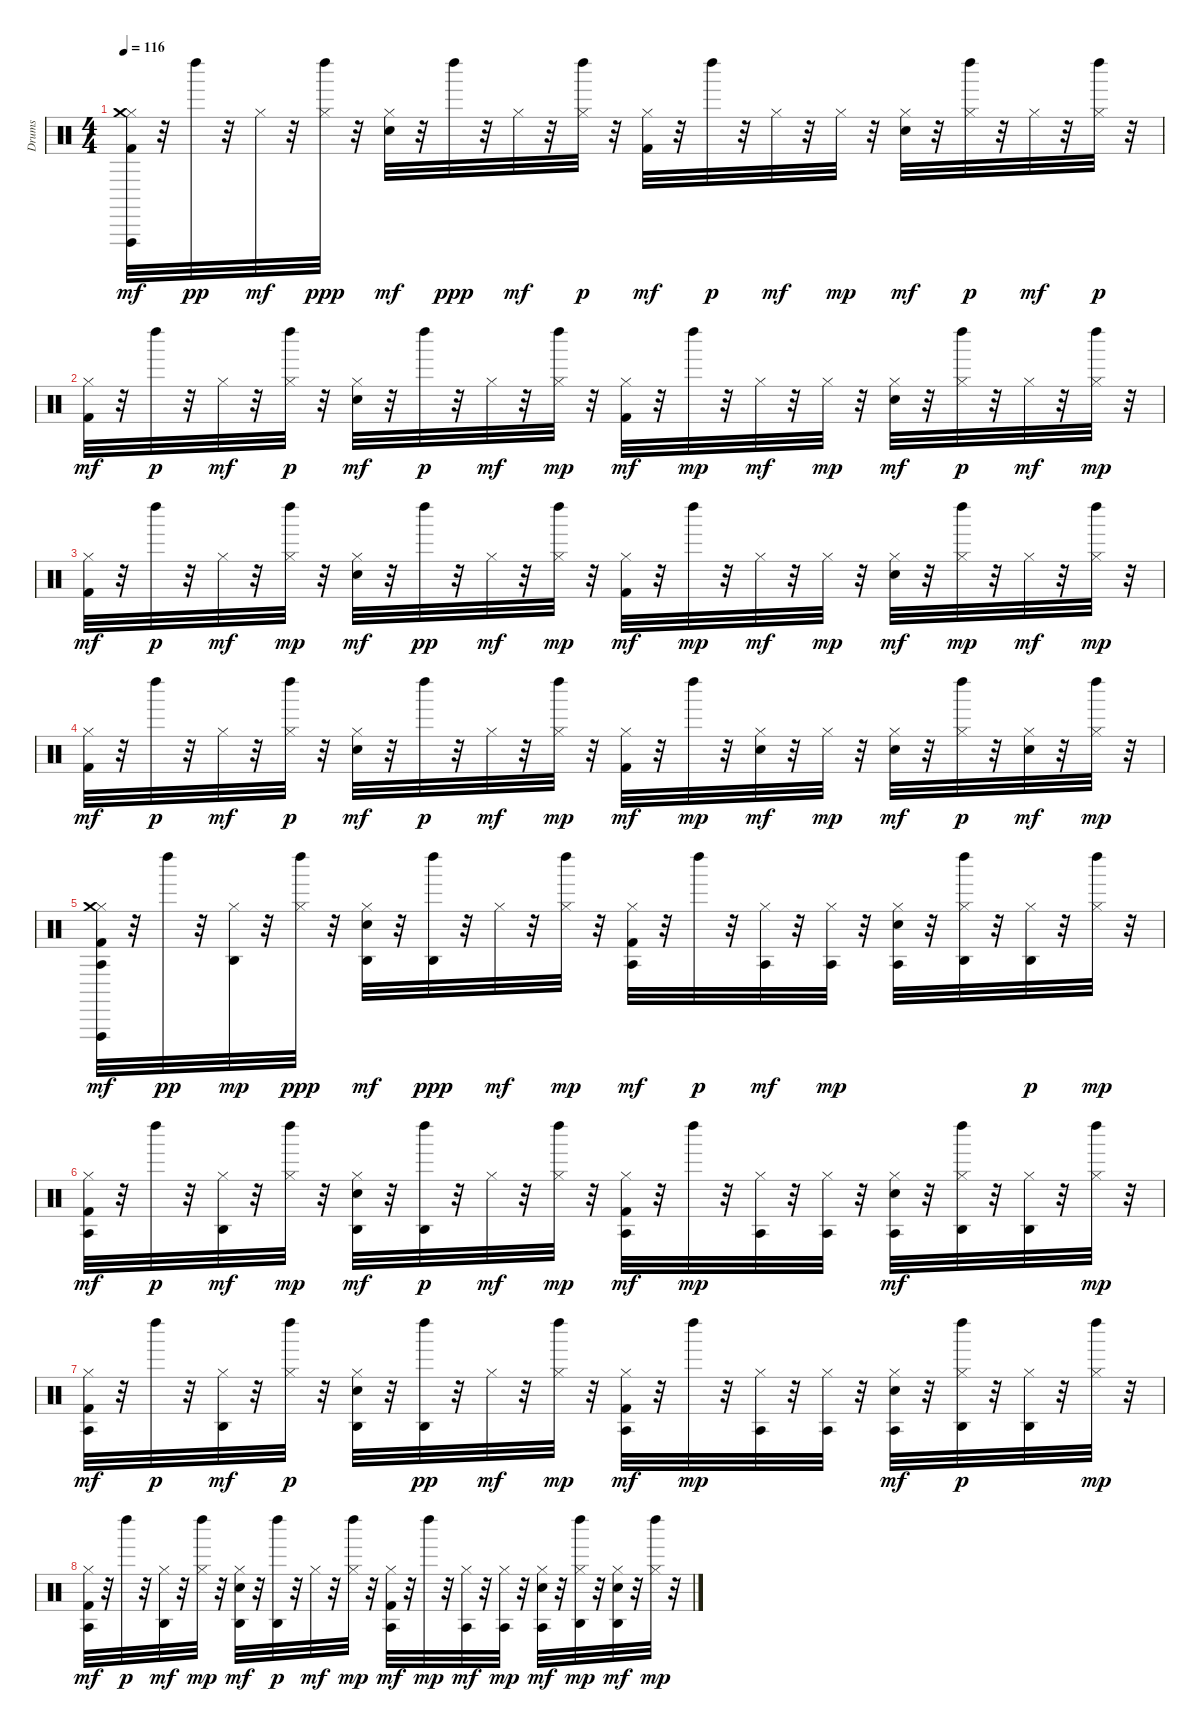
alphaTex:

\track ("Drums" "Drums") {instrument percussion}
\staff {score}
\articulation defaults
\ts (4 4)
\tempo 116
\clef neutral
\ks c
("Hi-Hat (closed)" "Kick (hit) 2" "Vibraslap (hit)" "Crash medium (hit)").32{dy mf} r.32 "Left Maraca (hit)".32{dy pp} r.32 "Hi-Hat (closed)".32{dy mf} r.32 ("Hi-Hat (closed)" "Left Maraca (hit)").32{dy ppp} r.32 ("Snare (hit) 2" "Hi-Hat (closed)").32{dy mf} r.32 "Left Maraca (hit)".32{dy ppp} r.32 "Hi-Hat (closed)".32{dy mf} r.32 ("Hi-Hat (closed)" "Left Maraca (hit)").32{dy p} r.32 ("Kick (hit) 2" "Hi-Hat (closed)").32{dy mf} r.32 "Left Maraca (hit)".32{dy p} r.32 "Hi-Hat (closed)".32{dy mf} r.32 "Hi-Hat (closed)".32{dy mp} r.32 ("Hi-Hat (closed)" "Snare (hit) 2").32{dy mf} r.32 ("Hi-Hat (closed)" "Left Maraca (hit)").32{dy p} r.32 "Hi-Hat (closed)".32{dy mf} r.32 ("Hi-Hat (closed)" "Left Maraca (hit)").32{dy p} r.32 |
("Kick (hit) 2" "Hi-Hat (closed)").32{dy mf} r.32 "Left Maraca (hit)".32{dy p} r.32 "Hi-Hat (closed)".32{dy mf} r.32 ("Hi-Hat (closed)" "Left Maraca (hit)").32{dy p} r.32 ("Hi-Hat (closed)" "Snare (hit) 2").32{dy mf} r.32 "Left Maraca (hit)".32{dy p} r.32 "Hi-Hat (closed)".32{dy mf} r.32 ("Hi-Hat (closed)" "Left Maraca (hit)").32{dy mp} r.32 ("Kick (hit) 2" "Hi-Hat (closed)").32{dy mf} r.32 "Left Maraca (hit)".32{dy mp} r.32 "Hi-Hat (closed)".32{dy mf} r.32 "Hi-Hat (closed)".32{dy mp} r.32 ("Hi-Hat (closed)" "Snare (hit) 2").32{dy mf} r.32 ("Hi-Hat (closed)" "Left Maraca (hit)").32{dy p} r.32 "Hi-Hat (closed)".32{dy mf} r.32 ("Left Maraca (hit)" "Hi-Hat (closed)").32{dy mp} r.32 |
("Kick (hit) 2" "Hi-Hat (closed)").32{dy mf} r.32 "Left Maraca (hit)".32{dy p} r.32 "Hi-Hat (closed)".32{dy mf} r.32 ("Left Maraca (hit)" "Hi-Hat (closed)").32{dy mp} r.32 ("Snare (hit) 2" "Hi-Hat (closed)").32{dy mf} r.32 "Left Maraca (hit)".32{dy pp} r.32 "Hi-Hat (closed)".32{dy mf} r.32 ("Hi-Hat (closed)" "Left Maraca (hit)").32{dy mp} r.32 ("Kick (hit) 2" "Hi-Hat (closed)").32{dy mf} r.32 "Left Maraca (hit)".32{dy mp} r.32 "Hi-Hat (closed)".32{dy mf} r.32 "Hi-Hat (closed)".32{dy mp} r.32 ("Hi-Hat (closed)" "Snare (hit) 2").32{dy mf} r.32 ("Left Maraca (hit)" "Hi-Hat (closed)").32{dy mp} r.32 "Hi-Hat (closed)".32{dy mf} r.32 ("Hi-Hat (closed)" "Left Maraca (hit)").32{dy mp} r.32 |
("Kick (hit) 2" "Hi-Hat (closed)").32{dy mf} r.32 "Left Maraca (hit)".32{dy p} r.32 "Hi-Hat (closed)".32{dy mf} r.32 ("Hi-Hat (closed)" "Left Maraca (hit)").32{dy p} r.32 ("Snare (hit) 2" "Hi-Hat (closed)").32{dy mf} r.32 "Left Maraca (hit)".32{dy p} r.32 "Hi-Hat (closed)".32{dy mf} r.32 ("Hi-Hat (closed)" "Left Maraca (hit)").32{dy mp} r.32 ("Kick (hit) 2" "Hi-Hat (closed)").32{dy mf} r.32 "Left Maraca (hit)".32{dy mp} r.32 ("Hi-Hat (closed)" "Snare (hit) 2").32{dy mf} r.32 "Hi-Hat (closed)".32{dy mp} r.32 ("Snare (hit) 2" "Hi-Hat (closed)").32{dy mf} r.32 ("Hi-Hat (closed)" "Left Maraca (hit)").32{dy p} r.32 ("Snare (hit) 2" "Hi-Hat (closed)").32{dy mf} r.32 ("Left Maraca (hit)" "Hi-Hat (closed)").32{dy mp} r.32 |
("Hi-Hat (closed)" "Crash medium (hit)" "Agogo tow (hit)" "Vibraslap (hit)" "Kick (hit) 2").32{dy mf} r.32 "Left Maraca (hit)".32{dy pp} r.32 ("Hi-Hat (closed)" "Agogo high (hit)").32{dy mp} r.32 ("Hi-Hat (closed)" "Left Maraca (hit)").32{dy ppp} r.32 ("Snare (hit) 2" "Agogo high (hit)" "Hi-Hat (closed)").32{dy mf} r.32 ("Agogo high (hit)" "Left Maraca (hit)").32{dy ppp} r.32 "Hi-Hat (closed)".32{dy mf} r.32 ("Left Maraca (hit)" "Hi-Hat (closed)").32{dy mp} r.32 ("Agogo tow (hit)" "Hi-Hat (closed)" "Kick (hit) 2").32{dy mf} r.32 "Left Maraca (hit)".32{dy p} r.32 ("Agogo tow (hit)" "Hi-Hat (closed)").32{dy mf} r.32 ("Hi-Hat (closed)" "Agogo tow (hit)").32{dy mp} r.32 ("Hi-Hat (closed)" "Snare (hit) 2" "Agogo tow (hit)").32 r.32 ("Agogo high (hit)" "Left Maraca (hit)" "Hi-Hat (closed)").32 r.32 ("Hi-Hat (closed)" "Agogo high (hit)").32{dy p} r.32 ("Left Maraca (hit)" "Hi-Hat (closed)").32{dy mp} r.32 |
("Hi-Hat (closed)" "Agogo tow (hit)" "Kick (hit) 2").32{dy mf} r.32 "Left Maraca (hit)".32{dy p} r.32 ("Agogo high (hit)" "Hi-Hat (closed)").32{dy mf} r.32 ("Left Maraca (hit)" "Hi-Hat (closed)").32{dy mp} r.32 ("Agogo high (hit)" "Hi-Hat (closed)" "Snare (hit) 2").32{dy mf} r.32 ("Left Maraca (hit)" "Agogo high (hit)").32{dy p} r.32 "Hi-Hat (closed)".32{dy mf} r.32 ("Hi-Hat (closed)" "Left Maraca (hit)").32{dy mp} r.32 ("Agogo tow (hit)" "Kick (hit) 2" "Hi-Hat (closed)").32{dy mf} r.32 "Left Maraca (hit)".32{dy mp} r.32 ("Hi-Hat (closed)" "Agogo tow (hit)").32 r.32 ("Agogo tow (hit)" "Hi-Hat (closed)").32 r.32 ("Snare (hit) 2" "Hi-Hat (closed)" "Agogo tow (hit)").32{dy mf} r.32 ("Hi-Hat (closed)" "Left Maraca (hit)" "Agogo high (hit)").32 r.32 ("Agogo high (hit)" "Hi-Hat (closed)").32 r.32 ("Left Maraca (hit)" "Hi-Hat (closed)").32{dy mp} r.32 |
("Hi-Hat (closed)" "Agogo tow (hit)" "Kick (hit) 2").32{dy mf} r.32 "Left Maraca (hit)".32{dy p} r.32 ("Hi-Hat (closed)" "Agogo high (hit)").32{dy mf} r.32 ("Hi-Hat (closed)" "Left Maraca (hit)").32{dy p} r.32 ("Snare (hit) 2" "Hi-Hat (closed)" "Agogo high (hit)").32 r.32 ("Agogo high (hit)" "Left Maraca (hit)").32{dy pp} r.32 "Hi-Hat (closed)".32{dy mf} r.32 ("Hi-Hat (closed)" "Left Maraca (hit)").32{dy mp} r.32 ("Kick (hit) 2" "Agogo tow (hit)" "Hi-Hat (closed)").32{dy mf} r.32 "Left Maraca (hit)".32{dy mp} r.32 ("Hi-Hat (closed)" "Agogo tow (hit)").32 r.32 ("Agogo tow (hit)" "Hi-Hat (closed)").32 r.32 ("Agogo tow (hit)" "Hi-Hat (closed)" "Snare (hit) 2").32{dy mf} r.32 ("Agogo high (hit)" "Hi-Hat (closed)" "Left Maraca (hit)").32{dy p} r.32 ("Hi-Hat (closed)" "Agogo high (hit)").32 r.32 ("Hi-Hat (closed)" "Left Maraca (hit)").32{dy mp} r.32 |
("Agogo tow (hit)" "Hi-Hat (closed)" "Kick (hit) 2").32{dy mf} r.32 "Left Maraca (hit)".32{dy p} r.32 ("Agogo high (hit)" "Hi-Hat (closed)").32{dy mf} r.32 ("Left Maraca (hit)" "Hi-Hat (closed)").32{dy mp} r.32 ("Hi-Hat (closed)" "Snare (hit) 2" "Agogo high (hit)").32{dy mf} r.32 ("Agogo high (hit)" "Left Maraca (hit)").32{dy p} r.32 "Hi-Hat (closed)".32{dy mf} r.32 ("Left Maraca (hit)" "Hi-Hat (closed)").32{dy mp} r.32 ("Kick (hit) 2" "Hi-Hat (closed)" "Agogo tow (hit)").32{dy mf} r.32 "Left Maraca (hit)".32{dy mp} r.32 ("Hi-Hat (closed)" "Agogo tow (hit)").32{dy mf} r.32 ("Agogo tow (hit)" "Hi-Hat (closed)").32{dy mp} r.32 ("Snare (hit) 2" "Agogo tow (hit)" "Hi-Hat (closed)").32{dy mf} r.32 ("Left Maraca (hit)" "Agogo high (hit)" "Hi-Hat (closed)").32{dy mp} r.32 ("Agogo high (hit)" "Snare (hit) 2" "Hi-Hat (closed)").32{dy mf} r.32 ("Left Maraca (hit)" "Hi-Hat (closed)").32{dy mp} r.32
